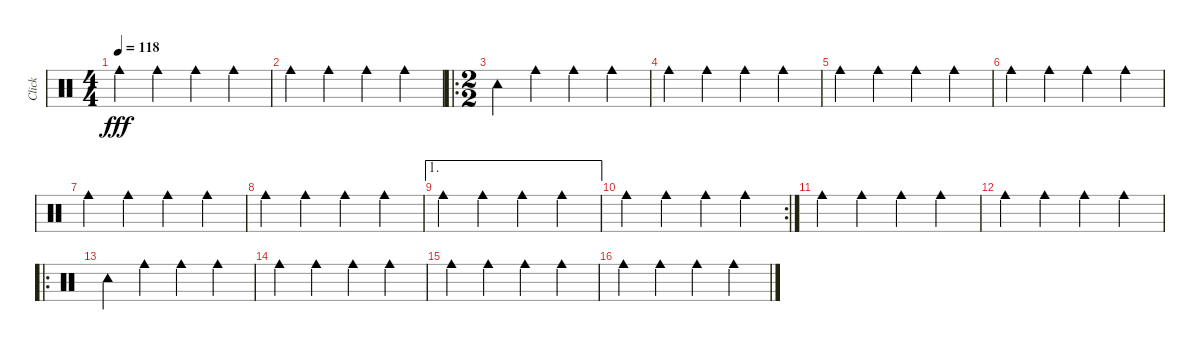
\track ("Click" "Click") {mute instrument percussion}
\staff {score}
\articulation defaults
\ts (4 4)
\tempo 118
\clef neutral
\ks c "Cowbell medium (hit)".4{dy fff} "Cowbell medium (hit)".4 "Cowbell medium (hit)".4 "Cowbell medium (hit)".4
|
"Cowbell medium (hit)".4 "Cowbell medium (hit)".4 "Cowbell medium (hit)".4 "Cowbell medium (hit)".4 |
\ro
\ts (2 2)
"Tambourine (hit)".4 "Cowbell medium (hit)".4 "Cowbell medium (hit)".4 "Cowbell medium (hit)".4 |
"Cowbell medium (hit)".4 "Cowbell medium (hit)".4 "Cowbell medium (hit)".4 "Cowbell medium (hit)".4 |
"Cowbell medium (hit)".4 "Cowbell medium (hit)".4 "Cowbell medium (hit)".4 "Cowbell medium (hit)".4 |
"Cowbell medium (hit)".4 "Cowbell medium (hit)".4 "Cowbell medium (hit)".4 "Cowbell medium (hit)".4 |
"Cowbell medium (hit)".4 "Cowbell medium (hit)".4 "Cowbell medium (hit)".4 "Cowbell medium (hit)".4 |
"Cowbell medium (hit)".4 "Cowbell medium (hit)".4 "Cowbell medium (hit)".4 "Cowbell medium (hit)".4 |
\ae 1 "Cowbell medium (hit)".4 "Cowbell medium (hit)".4 "Cowbell medium (hit)".4 "Cowbell medium (hit)".4
|
\rc 2 "Cowbell medium (hit)".4 "Cowbell medium (hit)".4 "Cowbell medium (hit)".4 "Cowbell medium (hit)".4
|
"Cowbell medium (hit)".4 "Cowbell medium (hit)".4 "Cowbell medium (hit)".4 "Cowbell medium (hit)".4 |
"Cowbell medium (hit)".4 "Cowbell medium (hit)".4 "Cowbell medium (hit)".4 "Cowbell medium (hit)".4 |
\ro "Tambourine (hit)".4 "Cowbell medium (hit)".4 "Cowbell medium (hit)".4 "Cowbell medium (hit)".4
|
"Cowbell medium (hit)".4 "Cowbell medium (hit)".4 "Cowbell medium (hit)".4 "Cowbell medium (hit)".4 |
"Cowbell medium (hit)".4 "Cowbell medium (hit)".4 "Cowbell medium (hit)".4 "Cowbell medium (hit)".4 |
"Cowbell medium (hit)".4 "Cowbell medium (hit)".4 "Cowbell medium (hit)".4 "Cowbell medium (hit)".4
